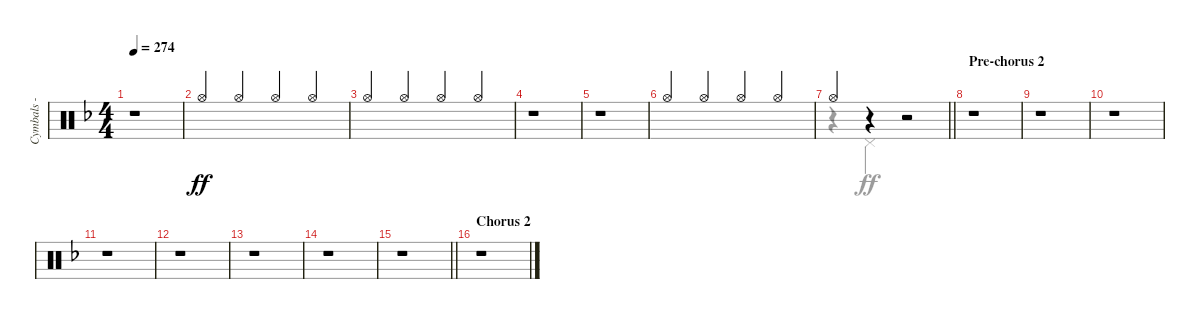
\track ("Cymbals - hi-hat" "Cymbals - ") {instrument percussion}
\staff {score}
\articulation defaults
\voice
\ts (4 4)
\tempo 274
\clef neutral
\ks dminor
r.1{dy ff} |
"Hi-Hat (open)".4{beam Up} "Hi-Hat (open)".4{beam Up} "Hi-Hat (open)".4{beam Up} "Hi-Hat (open)".4{beam Up} |
"Hi-Hat (open)".4{beam Up} "Hi-Hat (open)".4{beam Up} "Hi-Hat (open)".4{beam Up} "Hi-Hat (open)".4{beam Up} |
r.1 |
r.1 |
"Hi-Hat (open)".4{beam Up} "Hi-Hat (open)".4{beam Up} "Hi-Hat (open)".4{beam Up} "Hi-Hat (open)".4{beam Up} |
\barLineRight lightlight "Hi-Hat (open)".4
r.4 r.2 |
\section ("" "Pre-chorus 2")
r.1 |
r.1 |
r.1 |
r.1 |
r.1 |
r.1 |
r.1 |
\barLineRight lightlight
r.1 |
\section ("" "Chorus 2")
r.1
\voice
\clef neutral
\ottava regular
\simile none
\ks dminor
|
|
|
|
|
|
\barLineRight lightlight
r.4 "Pedal Hi-Hat (hit)".4 r.2 |
|
|
|
|
|
|
|
\barLineRight lightlight
|
